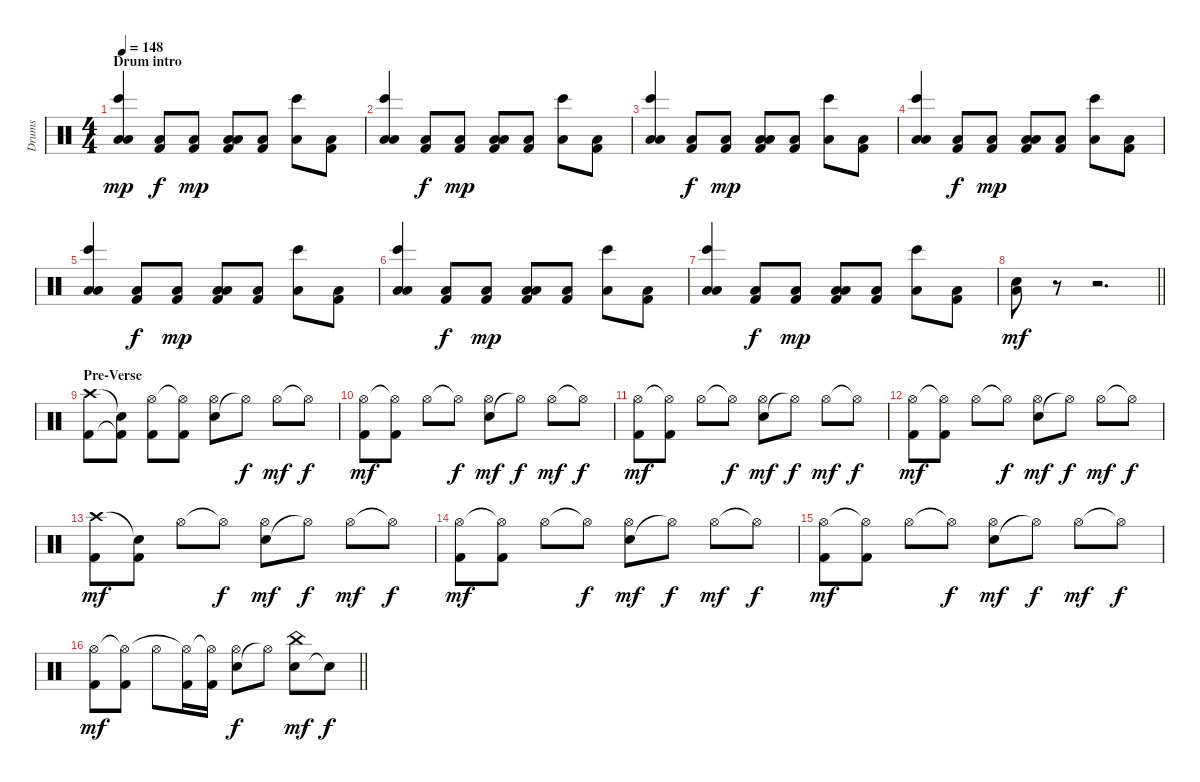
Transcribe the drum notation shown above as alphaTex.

\track ("Drums" "Drums") {instrument percussion}
\staff {score}
\articulation defaults
\ts (4 4)
\section ("" "Drum intro")
\tempo 148
\clef neutral
\ks c
("Low Floor Tom (hit)" "Bongo High (hit)" "Low Tom (hit)").4{dy mp} ("Low Floor Tom (hit)" "Kick (hit) 2").8{dy f} ("Low Floor Tom (hit)" "Kick (hit) 2").8{dy mp} ("Low Floor Tom (hit)" "Kick (hit) 2" "Low Tom (hit)").8 ("Low Floor Tom (hit)" "Kick (hit) 2").8 ("Low Floor Tom (hit)" "Bongo High (hit)").8 ("Low Floor Tom (hit)" "Kick (hit) 2").8 |
("Low Floor Tom (hit)" "Bongo High (hit)" "Low Tom (hit)").4 ("Low Floor Tom (hit)" "Kick (hit) 2").8{dy f} ("Low Floor Tom (hit)" "Kick (hit) 2").8{dy mp} ("Low Floor Tom (hit)" "Kick (hit) 2" "Low Tom (hit)").8 ("Low Floor Tom (hit)" "Kick (hit) 2").8 ("Low Floor Tom (hit)" "Bongo High (hit)").8 ("Low Floor Tom (hit)" "Kick (hit) 2").8 |
("Low Floor Tom (hit)" "Bongo High (hit)" "Low Tom (hit)").4 ("Low Floor Tom (hit)" "Kick (hit) 2").8{dy f} ("Low Floor Tom (hit)" "Kick (hit) 2").8{dy mp} ("Low Floor Tom (hit)" "Kick (hit) 2" "Low Tom (hit)").8 ("Low Floor Tom (hit)" "Kick (hit) 2").8 ("Low Floor Tom (hit)" "Bongo High (hit)").8 ("Low Floor Tom (hit)" "Kick (hit) 2").8 |
("Low Floor Tom (hit)" "Bongo High (hit)" "Low Tom (hit)").4 ("Low Floor Tom (hit)" "Kick (hit) 2").8{dy f} ("Low Floor Tom (hit)" "Kick (hit) 2").8{dy mp} ("Low Floor Tom (hit)" "Kick (hit) 2" "Low Tom (hit)").8 ("Low Floor Tom (hit)" "Kick (hit) 2").8 ("Low Floor Tom (hit)" "Bongo High (hit)").8 ("Low Floor Tom (hit)" "Kick (hit) 2").8 |
("Low Floor Tom (hit)" "Bongo High (hit)" "Low Tom (hit)").4 ("Low Floor Tom (hit)" "Kick (hit) 2").8{dy f} ("Low Floor Tom (hit)" "Kick (hit) 2").8{dy mp} ("Low Floor Tom (hit)" "Kick (hit) 2" "Low Tom (hit)").8 ("Low Floor Tom (hit)" "Kick (hit) 2").8 ("Low Floor Tom (hit)" "Bongo High (hit)").8 ("Low Floor Tom (hit)" "Kick (hit) 2").8 |
("Low Floor Tom (hit)" "Bongo High (hit)" "Low Tom (hit)").4 ("Low Floor Tom (hit)" "Kick (hit) 2").8{dy f} ("Low Floor Tom (hit)" "Kick (hit) 2").8{dy mp} ("Low Floor Tom (hit)" "Kick (hit) 2" "Low Tom (hit)").8 ("Low Floor Tom (hit)" "Kick (hit) 2").8 ("Low Floor Tom (hit)" "Bongo High (hit)").8 ("Low Floor Tom (hit)" "Kick (hit) 2").8 |
("Low Floor Tom (hit)" "Bongo High (hit)" "Low Tom (hit)").4 ("Low Floor Tom (hit)" "Kick (hit) 2").8{dy f} ("Low Floor Tom (hit)" "Kick (hit) 2").8{dy mp} ("Low Floor Tom (hit)" "Kick (hit) 2" "Low Tom (hit)").8 ("Low Floor Tom (hit)" "Kick (hit) 2").8 ("Low Floor Tom (hit)" "Bongo High (hit)").8 ("Low Floor Tom (hit)" "Kick (hit) 2").8 |
\barLineRight lightlight
("Low Floor Tom (hit)" "Hand Clap (hit)").8{dy mf} r.8 r.2{d} |
\section ("" "Pre-Verse")
("Kick (hit) 2" "Crash high (hit)").8 ("Kick (hit) 2"{t} "Snare (hit)"{t}).8 ("Kick (hit) 2" "Hi-Hat (open)").8 ("Kick (hit) 2" "Hi-Hat (open)"{t}).8 ("Snare (hit) 2" "Hi-Hat (open)").8 "Hi-Hat (open)"{t}.8{dy f} "Hi-Hat (open)".8{dy mf} "Hi-Hat (open)"{t}.8{dy f} |
("Kick (hit) 2" "Hi-Hat (open)").8{dy mf} ("Kick (hit) 2" "Hi-Hat (open)"{t}).8 "Hi-Hat (open)".8 "Hi-Hat (open)"{t}.8{dy f} ("Snare (hit) 2" "Hi-Hat (open)").8{dy mf} "Hi-Hat (open)"{t}.8{dy f} "Hi-Hat (open)".8{dy mf} "Hi-Hat (open)"{t}.8{dy f} |
("Kick (hit) 2" "Hi-Hat (open)").8{dy mf} ("Kick (hit) 2" "Hi-Hat (open)"{t}).8 "Hi-Hat (open)".8 "Hi-Hat (open)"{t}.8{dy f} ("Snare (hit) 2" "Hi-Hat (open)").8{dy mf} "Hi-Hat (open)"{t}.8{dy f} "Hi-Hat (open)".8{dy mf} "Hi-Hat (open)"{t}.8{dy f} |
("Kick (hit) 2" "Hi-Hat (open)").8{dy mf} ("Kick (hit) 2" "Hi-Hat (open)"{t}).8 "Hi-Hat (open)".8 "Hi-Hat (open)"{t}.8{dy f} ("Snare (hit) 2" "Hi-Hat (open)").8{dy mf} "Hi-Hat (open)"{t}.8{dy f} "Hi-Hat (open)".8{dy mf} "Hi-Hat (open)"{t}.8{dy f} |
("Kick (hit) 2" "Crash high (hit)").8{dy mf} ("Kick (hit) 2" "Snare (hit)"{t}).8 "Hi-Hat (open)".8 "Hi-Hat (open)"{t}.8{dy f} ("Snare (hit) 2" "Hi-Hat (open)").8{dy mf} "Hi-Hat (open)"{t}.8{dy f} "Hi-Hat (open)".8{dy mf} "Hi-Hat (open)"{t}.8{dy f} |
("Kick (hit) 2" "Hi-Hat (open)").8{dy mf} ("Kick (hit) 2" "Hi-Hat (open)"{t}).8 "Hi-Hat (open)".8 "Hi-Hat (open)"{t}.8{dy f} ("Snare (hit) 2" "Hi-Hat (open)").8{dy mf} "Hi-Hat (open)"{t}.8{dy f} "Hi-Hat (open)".8{dy mf} "Hi-Hat (open)"{t}.8{dy f} |
("Kick (hit) 2" "Hi-Hat (open)").8{dy mf} ("Kick (hit) 2" "Hi-Hat (open)"{t}).8 "Hi-Hat (open)".8 "Hi-Hat (open)"{t}.8{dy f} ("Snare (hit) 2" "Hi-Hat (open)").8{dy mf} "Hi-Hat (open)"{t}.8{dy f} "Hi-Hat (open)".8{dy mf} "Hi-Hat (open)"{t}.8{dy f} |
\barLineRight lightlight
("Kick (hit) 2" "Hi-Hat (open)").8{dy mf} ("Kick (hit) 2" "Hi-Hat (open)"{t}).8 "Hi-Hat (open)".8 ("Kick (hit) 2" "Hi-Hat (open)"{t}).16 ("Kick (hit) 2" "Hi-Hat (open)"{t}).16 ("Snare (hit) 2" "Hi-Hat (open)").8{dy f} "Hi-Hat (open)"{t}.8 ("Snare (hit) 2" "China (hit)").8{dy mf} "Snare (hit)"{t}.8{dy f}
